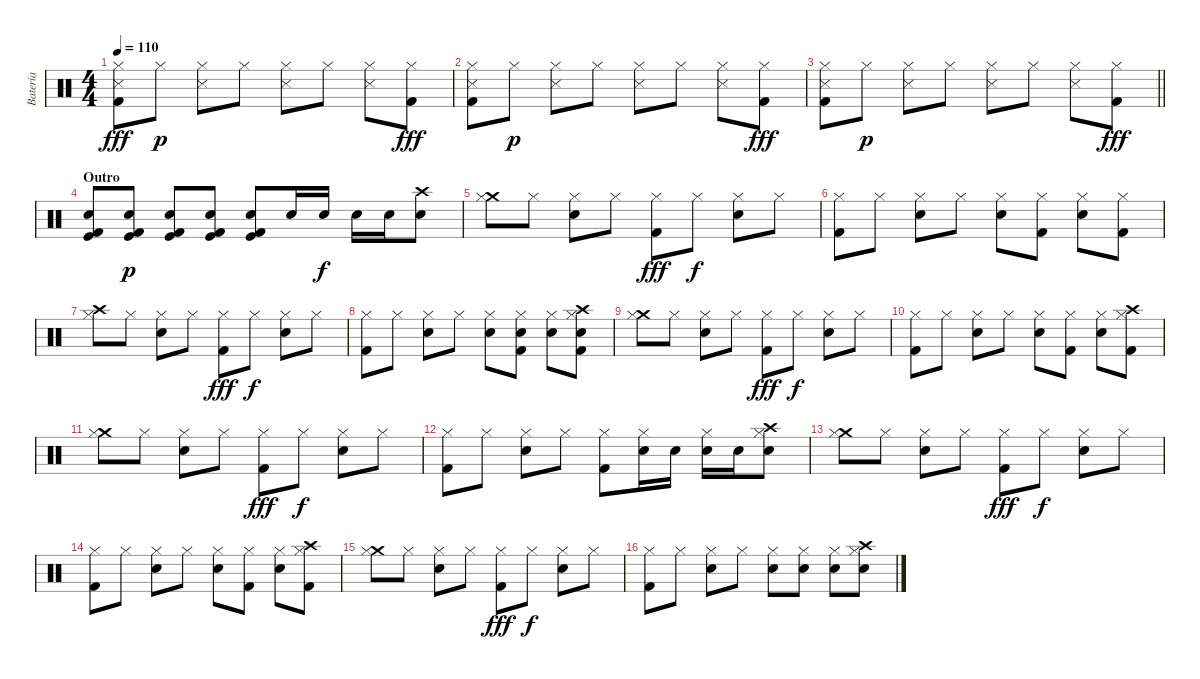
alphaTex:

\track ("Batería" "Batería") {instrument percussion}
\staff {score}
\articulation defaults
\ts (4 4)
\tempo 110
\clef neutral
\ks c
("Hi-Hat (closed)" "Snare (side stick) 3" "Kick (hit) 2").8{dy fff} "Hi-Hat (closed)".8{dy p} ("Hi-Hat (closed)" "Snare (side stick) 3").8 "Hi-Hat (closed)".8 ("Hi-Hat (closed)" "Snare (side stick) 3").8 "Hi-Hat (closed)".8 ("Hi-Hat (closed)" "Snare (side stick) 3").8 ("Hi-Hat (closed)" "Kick (hit) 2").8{dy fff} |
("Hi-Hat (closed)" "Snare (side stick) 3" "Kick (hit) 2").8 "Hi-Hat (closed)".8{dy p} ("Hi-Hat (closed)" "Snare (side stick) 3").8 "Hi-Hat (closed)".8 ("Hi-Hat (closed)" "Snare (side stick) 3").8 "Hi-Hat (closed)".8 ("Hi-Hat (closed)" "Snare (side stick) 3").8 ("Hi-Hat (closed)" "Kick (hit) 2").8{dy fff} |
\barLineRight lightlight
("Hi-Hat (closed)" "Snare (side stick) 3" "Kick (hit) 2").8 "Hi-Hat (closed)".8{dy p} ("Hi-Hat (closed)" "Snare (side stick) 3").8 "Hi-Hat (closed)".8 ("Hi-Hat (closed)" "Snare (side stick) 3").8 "Hi-Hat (closed)".8 ("Hi-Hat (closed)" "Snare (side stick) 3").8 ("Hi-Hat (closed)" "Kick (hit) 2").8{dy fff} |
\section ("" "Outro")
("Snare (hit) 2" "Kick (hit)" "Kick (hit) 2").8{volume 12} ("Snare (hit) 2" "Kick (hit)" "Kick (hit) 2").8{dy p} ("Snare (hit) 2" "Kick (hit)" "Kick (hit) 2").8 ("Snare (hit) 2" "Kick (hit)" "Kick (hit) 2").8 ("Snare (hit) 2" "Kick (hit)" "Kick (hit) 2").8 "Snare (hit) 2".16 "Snare (hit) 2".16{dy f} "Snare (hit) 2".16 "Snare (hit) 2".16 ("Snare (hit) 2" "Crash high (hit)").8 |
("Crash medium (hit)" "Hi-Hat (closed)").8 "Hi-Hat (closed)".8 ("Hi-Hat (closed)" "Snare (hit) 2").8 "Hi-Hat (closed)".8 ("Hi-Hat (closed)" "Kick (hit) 2").8{dy fff} "Hi-Hat (closed)".8{dy f} ("Hi-Hat (closed)" "Snare (hit) 2").8 "Hi-Hat (closed)".8 |
("Hi-Hat (closed)" "Kick (hit) 2").8 "Hi-Hat (closed)".8 ("Hi-Hat (closed)" "Snare (hit) 2").8 "Hi-Hat (closed)".8 ("Hi-Hat (closed)" "Snare (hit) 2").8 ("Hi-Hat (closed)" "Kick (hit) 2").8 ("Hi-Hat (closed)" "Snare (hit) 2").8 ("Hi-Hat (closed)" "Kick (hit) 2").8 |
("Crash high (hit)" "Hi-Hat (closed)").8 "Hi-Hat (closed)".8 ("Hi-Hat (closed)" "Snare (hit) 2").8 "Hi-Hat (closed)".8 ("Hi-Hat (closed)" "Kick (hit) 2").8{dy fff} "Hi-Hat (closed)".8{dy f} ("Hi-Hat (closed)" "Snare (hit) 2").8 "Hi-Hat (closed)".8 |
("Hi-Hat (closed)" "Kick (hit) 2").8 "Hi-Hat (closed)".8 ("Hi-Hat (closed)" "Snare (hit) 2").8 "Hi-Hat (closed)".8 ("Hi-Hat (closed)" "Snare (hit) 2").8 ("Hi-Hat (closed)" "Kick (hit) 2" "Snare (hit) 2").8 ("Hi-Hat (closed)" "Snare (hit) 2").8 ("Hi-Hat (closed)" "Kick (hit) 2" "Crash high (hit)" "Snare (hit) 2").8 |
("Crash medium (hit)" "Hi-Hat (closed)").8 "Hi-Hat (closed)".8 ("Hi-Hat (closed)" "Snare (hit) 2").8 "Hi-Hat (closed)".8 ("Hi-Hat (closed)" "Kick (hit) 2").8{dy fff} "Hi-Hat (closed)".8{dy f} ("Hi-Hat (closed)" "Snare (hit) 2").8 "Hi-Hat (closed)".8 |
("Hi-Hat (closed)" "Kick (hit) 2").8 "Hi-Hat (closed)".8 ("Hi-Hat (closed)" "Snare (hit) 2").8 "Hi-Hat (closed)".8 ("Hi-Hat (closed)" "Snare (hit) 2").8 ("Hi-Hat (closed)" "Kick (hit) 2").8 ("Hi-Hat (closed)" "Snare (hit) 2").8 ("Hi-Hat (closed)" "Kick (hit) 2" "Crash high (hit)").8 |
("Crash medium (hit)" "Hi-Hat (closed)").8 "Hi-Hat (closed)".8 ("Hi-Hat (closed)" "Snare (hit) 2").8 "Hi-Hat (closed)".8 ("Hi-Hat (closed)" "Kick (hit) 2").8{dy fff} "Hi-Hat (closed)".8{dy f} ("Hi-Hat (closed)" "Snare (hit) 2").8 "Hi-Hat (closed)".8 |
("Hi-Hat (closed)" "Kick (hit) 2").8 "Hi-Hat (closed)".8 ("Hi-Hat (closed)" "Snare (hit) 2").8 "Hi-Hat (closed)".8 ("Hi-Hat (closed)" "Kick (hit) 2").8 ("Hi-Hat (closed)" "Snare (hit) 2").16 "Snare (hit) 2".16 ("Hi-Hat (closed)" "Snare (hit) 2").16 "Snare (hit) 2".16 ("Snare (hit) 2" "Hi-Hat (closed)" "Crash high (hit)").8 |
("Crash medium (hit)" "Hi-Hat (closed)").8 "Hi-Hat (closed)".8 ("Hi-Hat (closed)" "Snare (hit) 2").8 "Hi-Hat (closed)".8 ("Hi-Hat (closed)" "Kick (hit) 2").8{dy fff} "Hi-Hat (closed)".8{dy f} ("Hi-Hat (closed)" "Snare (hit) 2").8 "Hi-Hat (closed)".8 |
("Hi-Hat (closed)" "Kick (hit) 2").8 "Hi-Hat (closed)".8 ("Hi-Hat (closed)" "Snare (hit) 2").8 "Hi-Hat (closed)".8 ("Hi-Hat (closed)" "Snare (hit) 2").8 ("Hi-Hat (closed)" "Kick (hit) 2").8 ("Hi-Hat (closed)" "Snare (hit) 2").8 ("Hi-Hat (closed)" "Kick (hit) 2" "Crash high (hit)").8 |
("Crash medium (hit)" "Hi-Hat (closed)").8 "Hi-Hat (closed)".8 ("Hi-Hat (closed)" "Snare (hit) 2").8 "Hi-Hat (closed)".8 ("Hi-Hat (closed)" "Kick (hit) 2").8{dy fff} "Hi-Hat (closed)".8{dy f} ("Hi-Hat (closed)" "Snare (hit) 2").8 "Hi-Hat (closed)".8 |
("Hi-Hat (closed)" "Kick (hit) 2").8 "Hi-Hat (closed)".8 ("Hi-Hat (closed)" "Snare (hit) 2").8 "Hi-Hat (closed)".8 ("Hi-Hat (closed)" "Snare (hit) 2").8 ("Hi-Hat (closed)" "Snare (hit) 2").8 ("Hi-Hat (closed)" "Snare (hit) 2").8 ("Hi-Hat (closed)" "Snare (hit) 2" "Crash high (hit)").8
